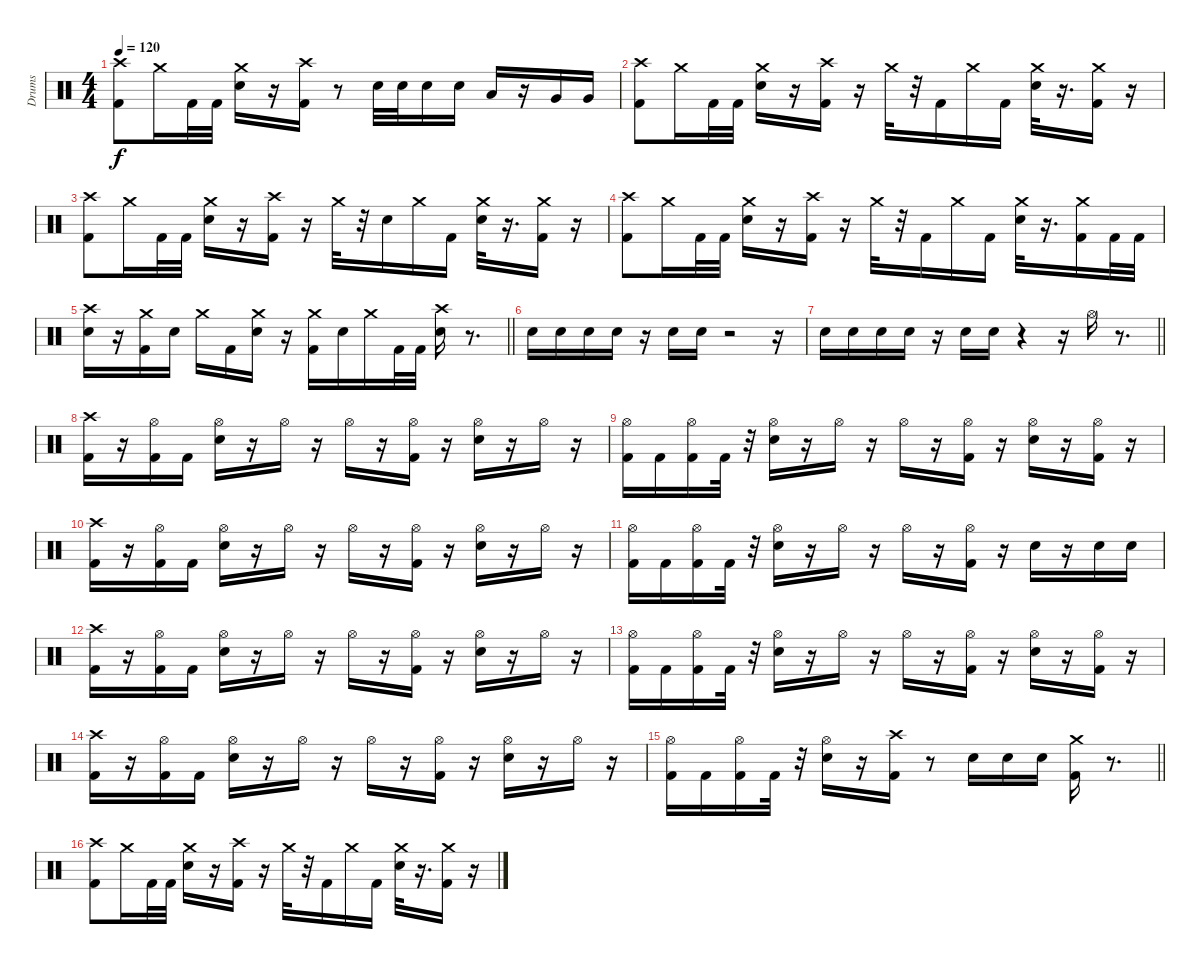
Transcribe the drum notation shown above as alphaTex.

\track ("Drums" "Drums") {instrument percussion}
\staff {score}
\articulation defaults
\ts (4 4)
\tempo 120
\clef neutral
\ks c
("Kick (hit) 2" "Crash high (hit)").8{dy f} "Crash medium (hit)".16 "Kick (hit) 2".32 "Kick (hit) 2".32 ("Snare (hit) 2" "Crash medium (hit)").16 r.16 ("Kick (hit) 2" "Crash high (hit)").16 r.8 "Snare (hit) 2".32 "Snare (hit) 2".32 "Snare (hit) 2".16 "Snare (hit) 2".16 "Low Tom (hit)".16 r.16 "Very Low Tom (hit)".16 "Very Low Tom (hit)".16 |
("Kick (hit) 2" "Crash high (hit)").8 "Crash medium (hit)".16 "Kick (hit) 2".32 "Kick (hit) 2".32 ("Snare (hit) 2" "Crash medium (hit)").16 r.16 ("Kick (hit) 2" "Crash high (hit)").16 r.16 "Crash medium (hit)".32 r.32 "Kick (hit) 2".16 "Crash medium (hit)".16 "Kick (hit) 2".16 ("Snare (hit) 2" "Crash medium (hit)").32 r.16{d} ("Kick (hit) 2" "Crash medium (hit)").16 r.16 |
("Kick (hit) 2" "Crash high (hit)").8 "Crash medium (hit)".16 "Kick (hit) 2".32 "Kick (hit) 2".32 ("Snare (hit) 2" "Crash medium (hit)").16 r.16 ("Kick (hit) 2" "Crash high (hit)").16 r.16 "Crash medium (hit)".32 r.32 "Snare (hit) 2".16 "Crash medium (hit)".16 "Kick (hit) 2".16 ("Snare (hit) 2" "Crash medium (hit)").32 r.16{d} ("Kick (hit) 2" "Crash medium (hit)").16 r.16 |
("Kick (hit) 2" "Crash high (hit)").8 "Crash medium (hit)".16 "Kick (hit) 2".32 "Kick (hit) 2".32 ("Snare (hit) 2" "Crash medium (hit)").16 r.16 ("Kick (hit) 2" "Crash high (hit)").16 r.16 "Crash medium (hit)".32 r.32 "Kick (hit) 2".16 "Crash medium (hit)".16 "Kick (hit) 2".16 ("Snare (hit) 2" "Crash medium (hit)").32 r.16{d} ("Kick (hit) 2" "Crash medium (hit)").16 "Kick (hit) 2".32 "Kick (hit) 2".32 |
\barLineRight lightlight
("Snare (hit) 2" "Crash high (hit)").16 r.16 ("Kick (hit) 2" "Crash medium (hit)").16 "Snare (hit) 2".16 "Crash medium (hit)".16 "Kick (hit) 2".16 ("Snare (hit) 2" "Crash medium (hit)").16 r.16 ("Kick (hit) 2" "Crash medium (hit)").16 "Snare (hit) 2".16 "Crash medium (hit)".16 "Kick (hit) 2".32 "Kick (hit) 2".32 ("Snare (hit) 2" "Crash high (hit)").16 r.8{d} |
\section ("" " ")
"Snare (hit) 2".16 "Snare (hit) 2".16 "Snare (hit) 2".16 "Snare (hit) 2".16 r.16 "Snare (hit) 2".16 "Snare (hit) 2".16 r.2 r.16 |
\barLineRight lightlight "Snare (hit) 2".16 "Snare (hit) 2".16 "Snare (hit) 2".16 "Snare (hit) 2".16
r.16 "Snare (hit) 2".16 "Snare (hit) 2".16 r.4 r.16 "Hi-Hat (open)".16 r.8{d} |
\section ("" " ")
("Kick (hit) 2" "Crash high (hit)").16 r.16 ("Kick (hit) 2" "Hi-Hat (open)").16 "Kick (hit) 2".16 ("Snare (hit) 2" "Hi-Hat (open)").16 r.16 "Hi-Hat (open)".16 r.16 "Hi-Hat (open)".16 r.16 ("Kick (hit) 2" "Hi-Hat (open)").16 r.16 ("Snare (hit) 2" "Hi-Hat (open)").16 r.16 "Hi-Hat (open)".16 r.16 |
("Kick (hit) 2" "Hi-Hat (open)").16 "Kick (hit) 2".16 ("Kick (hit) 2" "Hi-Hat (open)").16 "Kick (hit) 2".32 r.32 ("Snare (hit) 2" "Hi-Hat (open)").16 r.16 "Hi-Hat (open)".16 r.16 "Hi-Hat (open)".16 r.16 ("Kick (hit) 2" "Hi-Hat (open)").16 r.16 ("Snare (hit) 2" "Hi-Hat (open)").16 r.16 ("Kick (hit) 2" "Hi-Hat (open)").16 r.16 |
("Kick (hit) 2" "Crash high (hit)").16 r.16 ("Kick (hit) 2" "Hi-Hat (open)").16 "Kick (hit) 2".16 ("Snare (hit) 2" "Hi-Hat (open)").16 r.16 "Hi-Hat (open)".16 r.16 "Hi-Hat (open)".16 r.16 ("Kick (hit) 2" "Hi-Hat (open)").16 r.16 ("Snare (hit) 2" "Hi-Hat (open)").16 r.16 "Hi-Hat (open)".16 r.16 |
("Kick (hit) 2" "Hi-Hat (open)").16 "Kick (hit) 2".16 ("Kick (hit) 2" "Hi-Hat (open)").16 "Kick (hit) 2".32 r.32 ("Snare (hit) 2" "Hi-Hat (open)").16 r.16 "Hi-Hat (open)".16 r.16 "Hi-Hat (open)".16 r.16 ("Kick (hit) 2" "Hi-Hat (open)").16 r.16 "Snare (hit) 2".16 r.16 "Snare (hit) 2".16 "Snare (hit) 2".16 |
("Kick (hit) 2" "Crash high (hit)").16 r.16 ("Kick (hit) 2" "Hi-Hat (open)").16 "Kick (hit) 2".16 ("Snare (hit) 2" "Hi-Hat (open)").16 r.16 "Hi-Hat (open)".16 r.16 "Hi-Hat (open)".16 r.16 ("Kick (hit) 2" "Hi-Hat (open)").16 r.16 ("Snare (hit) 2" "Hi-Hat (open)").16 r.16 "Hi-Hat (open)".16 r.16 |
("Kick (hit) 2" "Hi-Hat (open)").16 "Kick (hit) 2".16 ("Kick (hit) 2" "Hi-Hat (open)").16 "Kick (hit) 2".32 r.32 ("Snare (hit) 2" "Hi-Hat (open)").16 r.16 "Hi-Hat (open)".16 r.16 "Hi-Hat (open)".16 r.16 ("Kick (hit) 2" "Hi-Hat (open)").16 r.16 ("Snare (hit) 2" "Hi-Hat (open)").16 r.16 ("Kick (hit) 2" "Hi-Hat (open)").16 r.16 |
("Kick (hit) 2" "Crash high (hit)").16 r.16 ("Kick (hit) 2" "Hi-Hat (open)").16 "Kick (hit) 2".16 ("Snare (hit) 2" "Hi-Hat (open)").16 r.16 "Hi-Hat (open)".16 r.16 "Hi-Hat (open)".16 r.16 ("Kick (hit) 2" "Hi-Hat (open)").16 r.16 ("Snare (hit) 2" "Hi-Hat (open)").16 r.16 "Hi-Hat (open)".16 r.16 |
\barLineRight lightlight
("Kick (hit) 2" "Hi-Hat (open)").16 "Kick (hit) 2".16 ("Kick (hit) 2" "Hi-Hat (open)").16 "Kick (hit) 2".32 r.32 ("Snare (hit) 2" "Hi-Hat (open)").16 r.16 ("Kick (hit) 2" "Crash high (hit)").16 r.8 "Snare (hit) 2".16 "Snare (hit) 2".16 "Snare (hit) 2".16 ("Kick (hit) 2" "Crash medium (hit)").16 r.8{d} |
\section ("" " ")
("Kick (hit) 2" "Crash high (hit)").8 "Crash medium (hit)".16 "Kick (hit) 2".32 "Kick (hit) 2".32 ("Snare (hit) 2" "Crash medium (hit)").16 r.16 ("Kick (hit) 2" "Crash high (hit)").16 r.16 "Crash medium (hit)".32 r.32 "Kick (hit) 2".16 "Crash medium (hit)".16 "Kick (hit) 2".16 ("Snare (hit) 2" "Crash medium (hit)").32 r.16{d} ("Kick (hit) 2" "Crash medium (hit)").16 r.16
